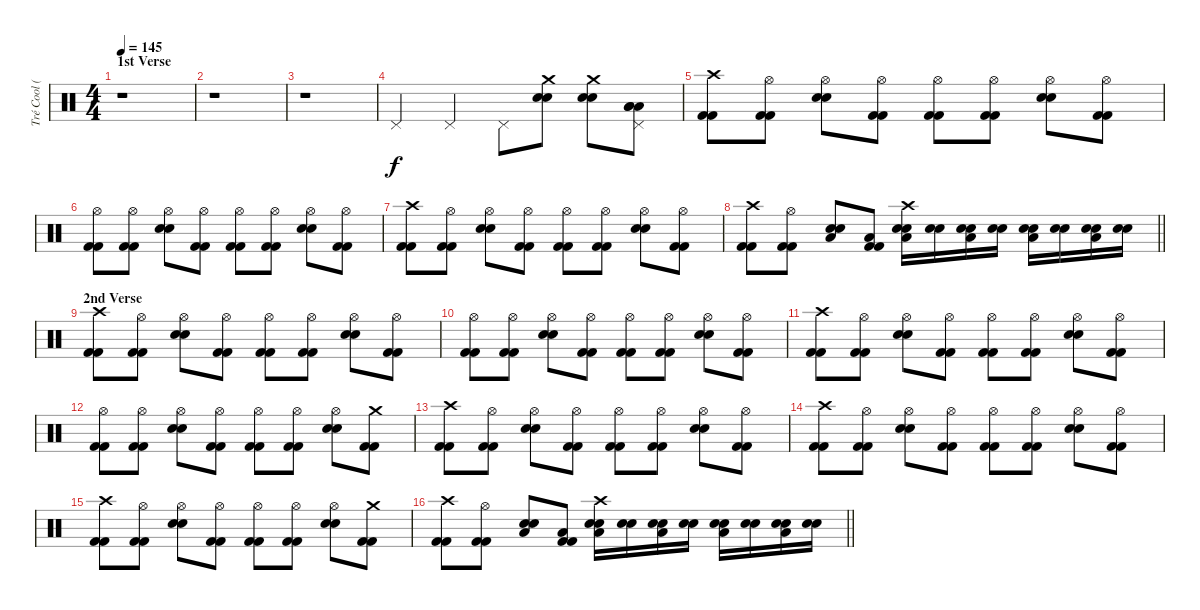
\track ("Tré Cool (Drums)" "Tré Cool (") {instrument percussion}
\staff {score}
\articulation defaults
\ts (4 4)
\section ("" "1st Verse")
\tempo 145
\clef neutral
\ks c
r.1{dy f} |
r.1 |
r.1 |
"Pedal Hi-Hat (hit)".4 "Pedal Hi-Hat (hit)".4 "Pedal Hi-Hat (hit)".8 ("Snare (hit) 2" "Snare (hit) 2" "Crash medium (hit)").8 ("Snare (hit) 2" "Snare (hit) 2" "Crash medium (hit)").8 ("Low Floor Tom (hit)" "Low Floor Tom (hit)" "Low Floor Tom (hit)" "Pedal Hi-Hat (hit)").8 |
("Kick (hit) 2" "Kick (hit) 2" "Crash high (hit)").8 ("Kick (hit) 2" "Kick (hit) 2" "Hi-Hat (open)").8 ("Snare (hit) 2" "Snare (hit) 2" "Hi-Hat (open)").8 ("Kick (hit) 2" "Kick (hit) 2" "Hi-Hat (open)").8 ("Kick (hit) 2" "Kick (hit) 2" "Hi-Hat (open)").8 ("Kick (hit) 2" "Kick (hit) 2" "Hi-Hat (open)").8 ("Snare (hit) 2" "Snare (hit) 2" "Hi-Hat (open)").8 ("Kick (hit) 2" "Kick (hit) 2" "Hi-Hat (open)").8 |
("Kick (hit) 2" "Kick (hit) 2" "Hi-Hat (open)").8 ("Kick (hit) 2" "Kick (hit) 2" "Hi-Hat (open)").8 ("Snare (hit) 2" "Snare (hit) 2" "Hi-Hat (open)").8 ("Kick (hit) 2" "Kick (hit) 2" "Hi-Hat (open)").8 ("Kick (hit) 2" "Kick (hit) 2" "Hi-Hat (open)").8 ("Kick (hit) 2" "Kick (hit) 2" "Hi-Hat (open)").8 ("Snare (hit) 2" "Snare (hit) 2" "Hi-Hat (open)").8 ("Kick (hit) 2" "Kick (hit) 2" "Hi-Hat (open)").8 |
("Kick (hit) 2" "Kick (hit) 2" "Crash high (hit)").8 ("Kick (hit) 2" "Kick (hit) 2" "Hi-Hat (open)").8 ("Snare (hit) 2" "Snare (hit) 2" "Hi-Hat (open)").8 ("Kick (hit) 2" "Kick (hit) 2" "Hi-Hat (open)").8 ("Kick (hit) 2" "Kick (hit) 2" "Hi-Hat (open)").8 ("Kick (hit) 2" "Kick (hit) 2" "Hi-Hat (open)").8 ("Snare (hit) 2" "Snare (hit) 2" "Hi-Hat (open)").8 ("Kick (hit) 2" "Kick (hit) 2" "Hi-Hat (open)").8 |
\barLineRight lightlight
("Kick (hit) 2" "Kick (hit) 2" "Crash high (hit)").8 ("Kick (hit) 2" "Kick (hit) 2" "Hi-Hat (open)").8 ("Snare (hit) 2" "Snare (hit) 2" "Low Tom (hit)").8 ("Kick (hit) 2" "Kick (hit) 2" "Low Tom (hit)").8 ("Electric Snare (hit)" "Electric Snare (hit)" "Low Floor Tom (hit)" "Crash high (hit)").16 ("Snare (hit) 2" "Snare (hit) 2").16 ("Electric Snare (hit)" "Electric Snare (hit)" "Low Floor Tom (hit)").16 ("Snare (hit) 2" "Snare (hit) 2").16 ("Electric Snare (hit)" "Electric Snare (hit)" "Low Floor Tom (hit)").16 ("Snare (hit) 2" "Snare (hit) 2").16 ("Electric Snare (hit)" "Electric Snare (hit)" "Low Floor Tom (hit)").16 ("Snare (hit) 2" "Snare (hit) 2").16 |
\section ("" "2nd Verse")
("Kick (hit) 2" "Kick (hit) 2" "Crash high (hit)").8 ("Kick (hit) 2" "Kick (hit) 2" "Hi-Hat (open)").8 ("Snare (hit) 2" "Snare (hit) 2" "Hi-Hat (open)").8 ("Kick (hit) 2" "Kick (hit) 2" "Hi-Hat (open)").8 ("Kick (hit) 2" "Kick (hit) 2" "Hi-Hat (open)").8 ("Kick (hit) 2" "Kick (hit) 2" "Hi-Hat (open)").8 ("Snare (hit) 2" "Snare (hit) 2" "Hi-Hat (open)").8 ("Kick (hit) 2" "Kick (hit) 2" "Hi-Hat (open)").8 |
("Kick (hit) 2" "Kick (hit) 2" "Hi-Hat (open)").8 ("Kick (hit) 2" "Kick (hit) 2" "Hi-Hat (open)").8 ("Snare (hit) 2" "Snare (hit) 2" "Hi-Hat (open)").8 ("Kick (hit) 2" "Kick (hit) 2" "Hi-Hat (open)").8 ("Kick (hit) 2" "Kick (hit) 2" "Hi-Hat (open)").8 ("Kick (hit) 2" "Kick (hit) 2" "Hi-Hat (open)").8 ("Snare (hit) 2" "Snare (hit) 2" "Hi-Hat (open)").8 ("Kick (hit) 2" "Kick (hit) 2" "Hi-Hat (open)").8 |
("Kick (hit) 2" "Kick (hit) 2" "Crash high (hit)").8 ("Kick (hit) 2" "Kick (hit) 2" "Hi-Hat (open)").8 ("Snare (hit) 2" "Snare (hit) 2" "Hi-Hat (open)").8 ("Kick (hit) 2" "Kick (hit) 2" "Hi-Hat (open)").8 ("Kick (hit) 2" "Kick (hit) 2" "Hi-Hat (open)").8 ("Kick (hit) 2" "Kick (hit) 2" "Hi-Hat (open)").8 ("Snare (hit) 2" "Snare (hit) 2" "Hi-Hat (open)").8 ("Kick (hit) 2" "Kick (hit) 2" "Hi-Hat (open)").8 |
("Kick (hit) 2" "Kick (hit) 2" "Hi-Hat (open)").8 ("Kick (hit) 2" "Kick (hit) 2" "Hi-Hat (open)").8 ("Snare (hit) 2" "Snare (hit) 2" "Hi-Hat (open)").8 ("Kick (hit) 2" "Kick (hit) 2" "Hi-Hat (open)").8 ("Kick (hit) 2" "Kick (hit) 2" "Hi-Hat (open)").8 ("Kick (hit) 2" "Kick (hit) 2" "Hi-Hat (open)").8 ("Snare (hit) 2" "Snare (hit) 2" "Hi-Hat (open)").8 ("Kick (hit) 2" "Kick (hit) 2" "Crash medium (hit)").8 |
("Kick (hit) 2" "Kick (hit) 2" "Crash high (hit)").8 ("Kick (hit) 2" "Kick (hit) 2" "Hi-Hat (open)").8 ("Snare (hit) 2" "Snare (hit) 2" "Hi-Hat (open)").8 ("Kick (hit) 2" "Kick (hit) 2" "Hi-Hat (open)").8 ("Kick (hit) 2" "Kick (hit) 2" "Hi-Hat (open)").8 ("Kick (hit) 2" "Kick (hit) 2" "Hi-Hat (open)").8 ("Snare (hit) 2" "Snare (hit) 2" "Hi-Hat (open)").8 ("Kick (hit) 2" "Kick (hit) 2" "Hi-Hat (open)").8 |
("Kick (hit) 2" "Kick (hit) 2" "Crash high (hit)").8 ("Kick (hit) 2" "Kick (hit) 2" "Hi-Hat (open)").8 ("Snare (hit) 2" "Snare (hit) 2" "Hi-Hat (open)").8 ("Kick (hit) 2" "Kick (hit) 2" "Hi-Hat (open)").8 ("Kick (hit) 2" "Kick (hit) 2" "Hi-Hat (open)").8 ("Kick (hit) 2" "Kick (hit) 2" "Hi-Hat (open)").8 ("Snare (hit) 2" "Snare (hit) 2" "Hi-Hat (open)").8 ("Kick (hit) 2" "Kick (hit) 2" "Hi-Hat (open)").8 |
("Kick (hit) 2" "Kick (hit) 2" "Crash high (hit)").8 ("Kick (hit) 2" "Kick (hit) 2" "Hi-Hat (open)").8 ("Snare (hit) 2" "Snare (hit) 2" "Hi-Hat (open)").8 ("Kick (hit) 2" "Kick (hit) 2" "Hi-Hat (open)").8 ("Kick (hit) 2" "Kick (hit) 2" "Hi-Hat (open)").8 ("Kick (hit) 2" "Kick (hit) 2" "Hi-Hat (open)").8 ("Snare (hit) 2" "Snare (hit) 2" "Hi-Hat (open)").8 ("Kick (hit) 2" "Kick (hit) 2" "Crash medium (hit)").8 |
\barLineRight lightlight
("Kick (hit) 2" "Kick (hit) 2" "Crash high (hit)").8 ("Kick (hit) 2" "Kick (hit) 2" "Hi-Hat (open)").8 ("Snare (hit) 2" "Snare (hit) 2" "Low Tom (hit)").8 ("Kick (hit) 2" "Kick (hit) 2" "Low Tom (hit)").8 ("Electric Snare (hit)" "Electric Snare (hit)" "Low Floor Tom (hit)" "Crash high (hit)").16 ("Snare (hit) 2" "Snare (hit) 2").16 ("Electric Snare (hit)" "Electric Snare (hit)" "Low Floor Tom (hit)").16 ("Snare (hit) 2" "Snare (hit) 2").16 ("Electric Snare (hit)" "Electric Snare (hit)" "Low Floor Tom (hit)").16 ("Snare (hit) 2" "Snare (hit) 2").16 ("Electric Snare (hit)" "Electric Snare (hit)" "Low Floor Tom (hit)").16 ("Snare (hit) 2" "Snare (hit) 2").16
